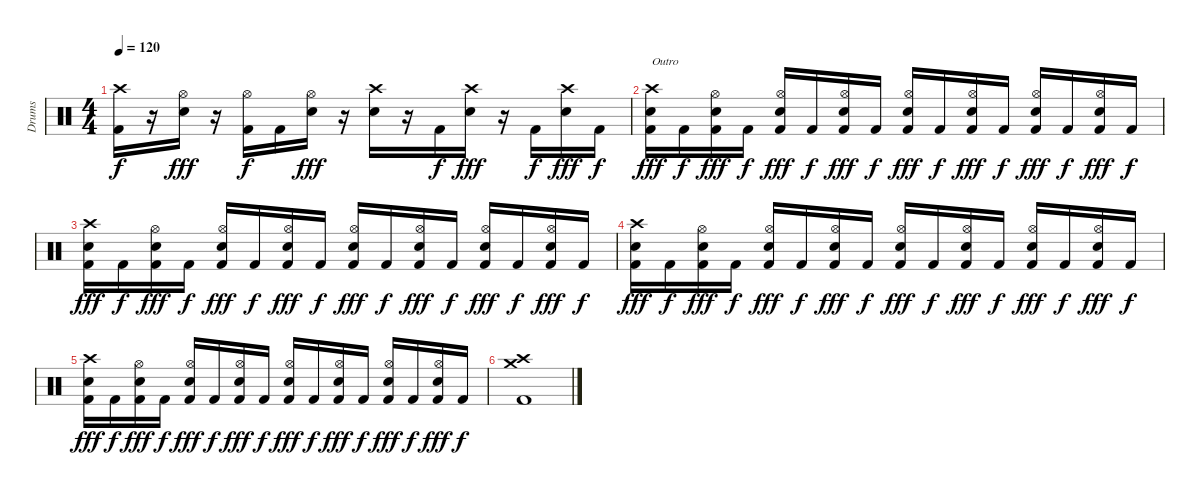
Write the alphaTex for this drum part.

\track ("Drums" "Drums") {instrument percussion}
\staff {score}
\articulation defaults
\ts (4 4)
\tempo 120
\clef neutral
\ks c
("Crash high (hit)" "Kick (hit) 2").16{dy f} r.16 ("Hi-Hat (open)" "Snare (hit) 2").16{dy fff} r.16 ("Hi-Hat (open)" "Kick (hit) 2").16{dy f} "Kick (hit) 2".16 ("Hi-Hat (open)" "Snare (hit) 2").16{dy fff} r.16 ("Crash high (hit)" "Snare (hit) 2").16 r.16 "Kick (hit) 2".16{dy f} ("Crash high (hit)" "Snare (hit) 2").16{dy fff} r.16 "Kick (hit) 2".16{dy f} ("Crash high (hit)" "Snare (hit) 2").16{dy fff} "Kick (hit) 2".16{dy f} |
("Crash high (hit)" "Snare (hit) 2" "Kick (hit) 2").16{txt "Outro" dy fff} "Kick (hit) 2".16{dy f} ("Hi-Hat (open)" "Snare (hit) 2" "Kick (hit) 2").16{dy fff} "Kick (hit) 2".16{dy f} ("Hi-Hat (open)" "Snare (hit) 2" "Kick (hit) 2").16{dy fff} "Kick (hit) 2".16{dy f} ("Hi-Hat (open)" "Snare (hit) 2" "Kick (hit) 2").16{dy fff} "Kick (hit) 2".16{dy f} ("Hi-Hat (open)" "Snare (hit) 2" "Kick (hit) 2").16{dy fff} "Kick (hit) 2".16{dy f} ("Hi-Hat (open)" "Snare (hit) 2" "Kick (hit) 2").16{dy fff} "Kick (hit) 2".16{dy f} ("Hi-Hat (open)" "Snare (hit) 2" "Kick (hit) 2").16{dy fff} "Kick (hit) 2".16{dy f} ("Hi-Hat (open)" "Snare (hit) 2" "Kick (hit) 2").16{dy fff} "Kick (hit) 2".16{dy f} |
("Crash high (hit)" "Snare (hit) 2" "Kick (hit) 2").16{dy fff} "Kick (hit) 2".16{dy f} ("Hi-Hat (open)" "Snare (hit) 2" "Kick (hit) 2").16{dy fff} "Kick (hit) 2".16{dy f} ("Hi-Hat (open)" "Snare (hit) 2" "Kick (hit) 2").16{dy fff} "Kick (hit) 2".16{dy f} ("Hi-Hat (open)" "Snare (hit) 2" "Kick (hit) 2").16{dy fff} "Kick (hit) 2".16{dy f} ("Hi-Hat (open)" "Snare (hit) 2" "Kick (hit) 2").16{dy fff} "Kick (hit) 2".16{dy f} ("Hi-Hat (open)" "Snare (hit) 2" "Kick (hit) 2").16{dy fff} "Kick (hit) 2".16{dy f} ("Hi-Hat (open)" "Snare (hit) 2" "Kick (hit) 2").16{dy fff} "Kick (hit) 2".16{dy f} ("Hi-Hat (open)" "Snare (hit) 2" "Kick (hit) 2").16{dy fff} "Kick (hit) 2".16{dy f} |
("Crash high (hit)" "Snare (hit) 2" "Kick (hit) 2").16{dy fff} "Kick (hit) 2".16{dy f} ("Hi-Hat (open)" "Snare (hit) 2" "Kick (hit) 2").16{dy fff} "Kick (hit) 2".16{dy f} ("Hi-Hat (open)" "Snare (hit) 2" "Kick (hit) 2").16{dy fff} "Kick (hit) 2".16{dy f} ("Hi-Hat (open)" "Snare (hit) 2" "Kick (hit) 2").16{dy fff} "Kick (hit) 2".16{dy f} ("Hi-Hat (open)" "Snare (hit) 2" "Kick (hit) 2").16{dy fff} "Kick (hit) 2".16{dy f} ("Hi-Hat (open)" "Snare (hit) 2" "Kick (hit) 2").16{dy fff} "Kick (hit) 2".16{dy f} ("Hi-Hat (open)" "Snare (hit) 2" "Kick (hit) 2").16{dy fff} "Kick (hit) 2".16{dy f} ("Hi-Hat (open)" "Snare (hit) 2" "Kick (hit) 2").16{dy fff} "Kick (hit) 2".16{dy f} |
("Crash high (hit)" "Snare (hit) 2" "Kick (hit) 2").16{dy fff} "Kick (hit) 2".16{dy f} ("Hi-Hat (open)" "Snare (hit) 2" "Kick (hit) 2").16{dy fff} "Kick (hit) 2".16{dy f} ("Hi-Hat (open)" "Snare (hit) 2" "Kick (hit) 2").16{dy fff} "Kick (hit) 2".16{dy f} ("Hi-Hat (open)" "Snare (hit) 2" "Kick (hit) 2").16{dy fff} "Kick (hit) 2".16{dy f} ("Hi-Hat (open)" "Snare (hit) 2" "Kick (hit) 2").16{dy fff} "Kick (hit) 2".16{dy f} ("Hi-Hat (open)" "Snare (hit) 2" "Kick (hit) 2").16{dy fff} "Kick (hit) 2".16{dy f} ("Hi-Hat (open)" "Snare (hit) 2" "Kick (hit) 2").16{dy fff} "Kick (hit) 2".16{dy f} ("Hi-Hat (open)" "Snare (hit) 2" "Kick (hit) 2").16{dy fff} "Kick (hit) 2".16{dy f} |
("Crash high (hit)" "Crash medium (hit)" "Kick (hit) 2").1
